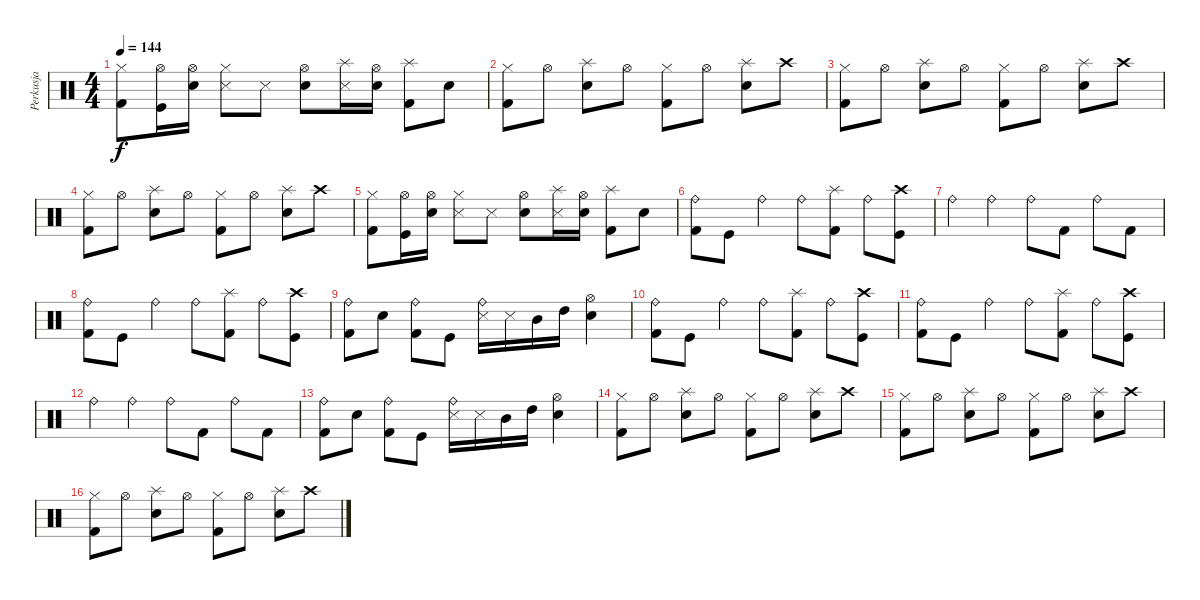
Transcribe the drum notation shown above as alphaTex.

\track ("Perkusja" "Perkusja") {instrument percussion}
\staff {score}
\articulation defaults
\ts (4 4)
\tempo 144
\clef neutral
\ks c
("Kick (hit) 2" "Hi-Hat (closed)").8{dy f} ("Hi-Hat (open)" "Kick (hit)").16 ("Snare (hit) 2" "Hi-Hat (open)").16 ("Snare (side stick) 3" "Hi-Hat (closed)").8 "Snare (side stick) 3".8 ("Snare (hit) 2" "Hi-Hat (open)").8 ("Snare (side stick) 3" "Splash (hit)").16 ("Snare (hit) 2" "Hi-Hat (open)").16 ("Kick (hit) 2" "Splash (hit)").8 "Snare (hit) 2".8 |
("Kick (hit) 2" "Hi-Hat (closed)").8 "Hi-Hat (open)".8 ("Snare (hit) 2" "Splash (hit)").8 "Hi-Hat (open)".8 ("Kick (hit) 2" "Hi-Hat (closed)").8 "Hi-Hat (open)".8 ("Snare (hit) 2" "Splash (hit)").8 "Crash high (hit)".8 |
("Kick (hit) 2" "Hi-Hat (closed)").8 "Hi-Hat (open)".8 ("Snare (hit) 2" "Splash (hit)").8 "Hi-Hat (open)".8 ("Kick (hit) 2" "Hi-Hat (closed)").8 "Hi-Hat (open)".8 ("Snare (hit) 2" "Splash (hit)").8 "Crash high (hit)".8 |
("Kick (hit) 2" "Hi-Hat (closed)").8 "Hi-Hat (open)".8 ("Snare (hit) 2" "Splash (hit)").8 "Hi-Hat (open)".8 ("Kick (hit) 2" "Hi-Hat (closed)").8 "Hi-Hat (open)".8 ("Snare (hit) 2" "Splash (hit)").8 "Crash high (hit)".8 |
("Kick (hit) 2" "Hi-Hat (closed)").8 ("Hi-Hat (open)" "Kick (hit)").16 ("Snare (hit) 2" "Hi-Hat (open)").16 ("Snare (side stick) 3" "Hi-Hat (closed)").8 "Snare (side stick) 3".8 ("Snare (hit) 2" "Hi-Hat (open)").8 ("Snare (side stick) 3" "Splash (hit)").16 ("Snare (hit) 2" "Hi-Hat (open)").16 ("Kick (hit) 2" "Splash (hit)").8 "Snare (hit) 2".8 |
("Ride (bell)" "Kick (hit) 2").8 "Kick (hit)".8 "Ride (bell)".4 "Ride (bell)".8 ("Splash (hit)" "Kick (hit) 2").8 "Ride (bell)".8 ("Crash high (hit)" "Kick (hit)").8 |
"Ride (bell)".4 "Ride (bell)".4 "Ride (bell)".8 "Kick (hit) 2".8 "Ride (bell)".8 "Kick (hit) 2".8 |
("Ride (bell)" "Kick (hit) 2").8 "Kick (hit)".8 "Ride (bell)".4 "Ride (bell)".8 ("Splash (hit)" "Kick (hit) 2").8 "Ride (bell)".8 ("Crash high (hit)" "Kick (hit)").8 |
("Ride (bell)" "Kick (hit) 2").8 "Snare (hit) 2".8 ("Ride (bell)" "Kick (hit) 2").8 "Kick (hit)".8 ("Ride (bell)" "Snare (side stick) 3").16 "Snare (side stick) 3".16 "Mid Tom (hit)".16 "High Tom (hit)".16 ("Hi-Hat (open)" "Snare (hit) 2").4 |
("Ride (bell)" "Kick (hit) 2").8 "Kick (hit)".8 "Ride (bell)".4 "Ride (bell)".8 ("Splash (hit)" "Kick (hit) 2").8 "Ride (bell)".8 ("Crash high (hit)" "Kick (hit)").8 |
("Ride (bell)" "Kick (hit) 2").8 "Kick (hit)".8 "Ride (bell)".4 "Ride (bell)".8 ("Splash (hit)" "Kick (hit) 2").8 "Ride (bell)".8 ("Crash high (hit)" "Kick (hit)").8 |
"Ride (bell)".4 "Ride (bell)".4 "Ride (bell)".8 "Kick (hit) 2".8 "Ride (bell)".8 "Kick (hit) 2".8 |
("Ride (bell)" "Kick (hit) 2").8 "Snare (hit) 2".8 ("Ride (bell)" "Kick (hit) 2").8 "Kick (hit)".8 ("Ride (bell)" "Snare (side stick) 3").16 "Snare (side stick) 3".16 "Mid Tom (hit)".16 "High Tom (hit)".16 ("Hi-Hat (open)" "Snare (hit) 2").4 |
("Kick (hit) 2" "Hi-Hat (closed)").8 "Hi-Hat (open)".8 ("Snare (hit) 2" "Splash (hit)").8 "Hi-Hat (open)".8 ("Kick (hit) 2" "Hi-Hat (closed)").8 "Hi-Hat (open)".8 ("Snare (hit) 2" "Splash (hit)").8 "Crash high (hit)".8 |
("Kick (hit) 2" "Hi-Hat (closed)").8 "Hi-Hat (open)".8 ("Snare (hit) 2" "Splash (hit)").8 "Hi-Hat (open)".8 ("Kick (hit) 2" "Hi-Hat (closed)").8 "Hi-Hat (open)".8 ("Snare (hit) 2" "Splash (hit)").8 "Crash high (hit)".8 |
("Kick (hit) 2" "Hi-Hat (closed)").8 "Hi-Hat (open)".8 ("Snare (hit) 2" "Splash (hit)").8 "Hi-Hat (open)".8 ("Kick (hit) 2" "Hi-Hat (closed)").8 "Hi-Hat (open)".8 ("Snare (hit) 2" "Splash (hit)").8 "Crash high (hit)".8
